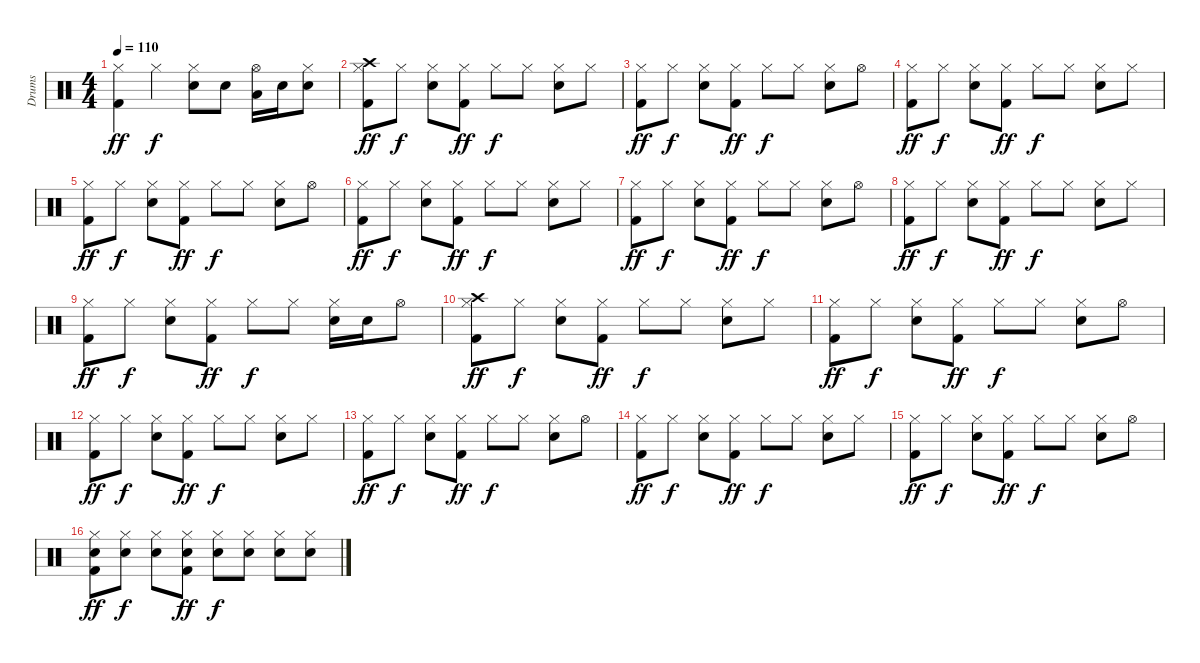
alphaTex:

\track ("Drums" "Drums") {instrument percussion}
\staff {score}
\articulation defaults
\ts (4 4)
\tempo 110
\clef neutral
\ks c
("Kick (hit) 2" "Hi-Hat (closed)").4{dy ff} "Hi-Hat (closed)".4{dy f} ("Snare (hit) 2" "Hi-Hat (closed)").8 "Snare (hit) 2".8 ("Low Tom (hit)" "Hi-Hat (open)").16 "Snare (hit) 2".16 ("Snare (hit) 2" "Hi-Hat (closed)").8 |
("Kick (hit) 2" "Hi-Hat (closed)" "Crash high (hit)").8{dy ff} "Hi-Hat (closed)".8{dy f} ("Snare (hit) 2" "Hi-Hat (closed)").8 ("Kick (hit) 2" "Hi-Hat (closed)").8{dy ff} "Hi-Hat (closed)".8{dy f} "Hi-Hat (closed)".8 ("Snare (hit) 2" "Hi-Hat (closed)").8 "Hi-Hat (closed)".8 |
("Kick (hit) 2" "Hi-Hat (closed)").8{dy ff} "Hi-Hat (closed)".8{dy f} ("Snare (hit) 2" "Hi-Hat (closed)").8 ("Kick (hit) 2" "Hi-Hat (closed)").8{dy ff} "Hi-Hat (closed)".8{dy f} "Hi-Hat (closed)".8 ("Snare (hit) 2" "Hi-Hat (closed)").8 "Hi-Hat (open)".8 |
("Kick (hit) 2" "Hi-Hat (closed)").8{dy ff} "Hi-Hat (closed)".8{dy f} ("Snare (hit) 2" "Hi-Hat (closed)").8 ("Kick (hit) 2" "Hi-Hat (closed)").8{dy ff} "Hi-Hat (closed)".8{dy f} "Hi-Hat (closed)".8 ("Snare (hit) 2" "Hi-Hat (closed)").8 "Hi-Hat (closed)".8 |
("Kick (hit) 2" "Hi-Hat (closed)").8{dy ff} "Hi-Hat (closed)".8{dy f} ("Snare (hit) 2" "Hi-Hat (closed)").8 ("Kick (hit) 2" "Hi-Hat (closed)").8{dy ff} "Hi-Hat (closed)".8{dy f} "Hi-Hat (closed)".8 ("Snare (hit) 2" "Hi-Hat (closed)").8 "Hi-Hat (open)".8 |
("Kick (hit) 2" "Hi-Hat (closed)").8{dy ff} "Hi-Hat (closed)".8{dy f} ("Snare (hit) 2" "Hi-Hat (closed)").8 ("Kick (hit) 2" "Hi-Hat (closed)").8{dy ff} "Hi-Hat (closed)".8{dy f} "Hi-Hat (closed)".8 ("Snare (hit) 2" "Hi-Hat (closed)").8 "Hi-Hat (closed)".8 |
("Kick (hit) 2" "Hi-Hat (closed)").8{dy ff} "Hi-Hat (closed)".8{dy f} ("Snare (hit) 2" "Hi-Hat (closed)").8 ("Kick (hit) 2" "Hi-Hat (closed)").8{dy ff} "Hi-Hat (closed)".8{dy f} "Hi-Hat (closed)".8 ("Snare (hit) 2" "Hi-Hat (closed)").8 "Hi-Hat (open)".8 |
("Kick (hit) 2" "Hi-Hat (closed)").8{dy ff} "Hi-Hat (closed)".8{dy f} ("Snare (hit) 2" "Hi-Hat (closed)").8 ("Kick (hit) 2" "Hi-Hat (closed)").8{dy ff} "Hi-Hat (closed)".8{dy f} "Hi-Hat (closed)".8 ("Snare (hit) 2" "Hi-Hat (closed)").8 "Hi-Hat (closed)".8 |
("Kick (hit) 2" "Hi-Hat (closed)").8{dy ff} "Hi-Hat (closed)".8{dy f} ("Snare (hit) 2" "Hi-Hat (closed)").8 ("Kick (hit) 2" "Hi-Hat (closed)").8{dy ff} "Hi-Hat (closed)".8{dy f} "Hi-Hat (closed)".8 ("Snare (hit) 2" "Hi-Hat (closed)").16 "Snare (hit) 2".16 "Hi-Hat (open)".8 |
("Kick (hit) 2" "Hi-Hat (closed)" "Crash high (hit)").8{dy ff} "Hi-Hat (closed)".8{dy f} ("Snare (hit) 2" "Hi-Hat (closed)").8 ("Kick (hit) 2" "Hi-Hat (closed)").8{dy ff} "Hi-Hat (closed)".8{dy f} "Hi-Hat (closed)".8 ("Snare (hit) 2" "Hi-Hat (closed)").8 "Hi-Hat (closed)".8 |
("Kick (hit) 2" "Hi-Hat (closed)").8{dy ff} "Hi-Hat (closed)".8{dy f} ("Snare (hit) 2" "Hi-Hat (closed)").8 ("Kick (hit) 2" "Hi-Hat (closed)").8{dy ff} "Hi-Hat (closed)".8{dy f} "Hi-Hat (closed)".8 ("Snare (hit) 2" "Hi-Hat (closed)").8 "Hi-Hat (open)".8 |
("Kick (hit) 2" "Hi-Hat (closed)").8{dy ff} "Hi-Hat (closed)".8{dy f} ("Snare (hit) 2" "Hi-Hat (closed)").8 ("Kick (hit) 2" "Hi-Hat (closed)").8{dy ff} "Hi-Hat (closed)".8{dy f} "Hi-Hat (closed)".8 ("Snare (hit) 2" "Hi-Hat (closed)").8 "Hi-Hat (closed)".8 |
("Kick (hit) 2" "Hi-Hat (closed)").8{dy ff} "Hi-Hat (closed)".8{dy f} ("Snare (hit) 2" "Hi-Hat (closed)").8 ("Kick (hit) 2" "Hi-Hat (closed)").8{dy ff} "Hi-Hat (closed)".8{dy f} "Hi-Hat (closed)".8 ("Snare (hit) 2" "Hi-Hat (closed)").8 "Hi-Hat (open)".8 |
("Kick (hit) 2" "Hi-Hat (closed)").8{dy ff} "Hi-Hat (closed)".8{dy f} ("Snare (hit) 2" "Hi-Hat (closed)").8 ("Kick (hit) 2" "Hi-Hat (closed)").8{dy ff} "Hi-Hat (closed)".8{dy f} "Hi-Hat (closed)".8 ("Snare (hit) 2" "Hi-Hat (closed)").8 "Hi-Hat (closed)".8 |
("Kick (hit) 2" "Hi-Hat (closed)").8{dy ff} "Hi-Hat (closed)".8{dy f} ("Snare (hit) 2" "Hi-Hat (closed)").8 ("Kick (hit) 2" "Hi-Hat (closed)").8{dy ff} "Hi-Hat (closed)".8{dy f} "Hi-Hat (closed)".8 ("Snare (hit) 2" "Hi-Hat (closed)").8 "Hi-Hat (open)".8 |
("Kick (hit) 2" "Snare (hit) 2" "Hi-Hat (closed)").8{dy ff} ("Snare (hit) 2" "Hi-Hat (closed)").8{dy f} ("Snare (hit) 2" "Hi-Hat (closed)").8 ("Kick (hit) 2" "Snare (hit) 2" "Hi-Hat (closed)").8{dy ff} ("Snare (hit) 2" "Hi-Hat (closed)").8{dy f} ("Snare (hit) 2" "Hi-Hat (closed)").8 ("Snare (hit) 2" "Hi-Hat (closed)").8 ("Snare (hit) 2" "Hi-Hat (closed)").8
